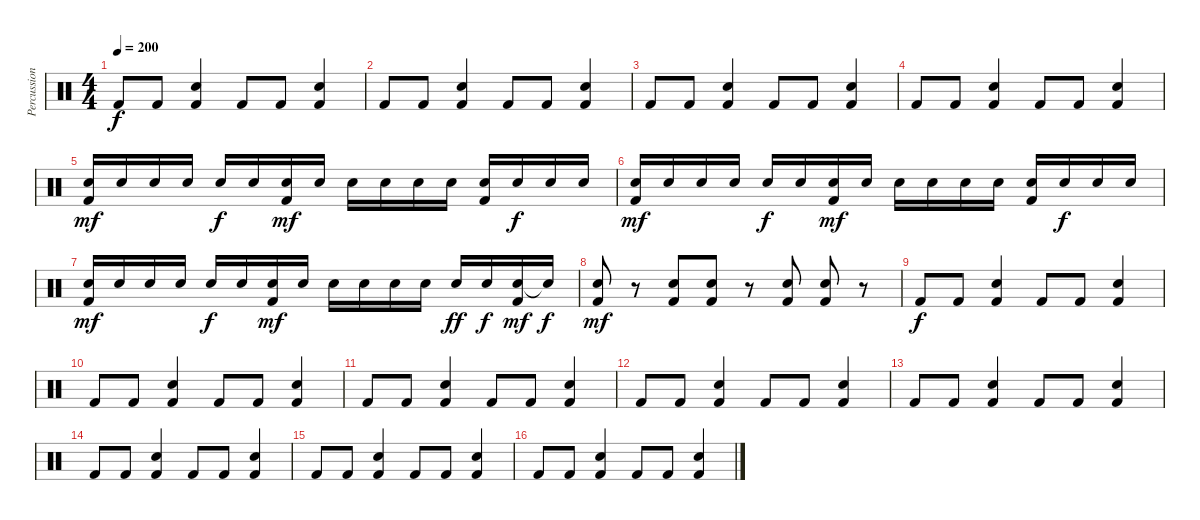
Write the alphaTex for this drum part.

\track ("Percussioni" "Percussion") {instrument percussion}
\staff {score}
\articulation defaults
\ts (4 4)
\tempo 200
\clef neutral
\ks c "Kick (hit) 2".8{dy f} "Kick (hit) 2".8
("Snare (hit) 2" "Kick (hit) 2").4 "Kick (hit) 2".8 "Kick (hit) 2".8 ("Snare (hit) 2" "Kick (hit) 2").4 |
"Kick (hit) 2".8 "Kick (hit) 2".8 ("Snare (hit) 2" "Kick (hit) 2").4 "Kick (hit) 2".8 "Kick (hit) 2".8 ("Snare (hit) 2" "Kick (hit) 2").4 |
"Kick (hit) 2".8 "Kick (hit) 2".8 ("Snare (hit) 2" "Kick (hit) 2").4 "Kick (hit) 2".8 "Kick (hit) 2".8 ("Snare (hit) 2" "Kick (hit) 2").4 |
"Kick (hit) 2".8 "Kick (hit) 2".8 ("Snare (hit) 2" "Kick (hit) 2").4 "Kick (hit) 2".8 "Kick (hit) 2".8 ("Snare (hit) 2" "Kick (hit) 2").4 |
("Electric Snare (hit)" "Kick (hit) 2").16{dy mf} "Electric Snare (hit)".16 "Electric Snare (hit)".16 "Electric Snare (hit)".16 "Electric Snare (hit)".16{dy f} "Electric Snare (hit)".16 ("Electric Snare (hit)" "Kick (hit) 2").16{dy mf} "Electric Snare (hit)".16 "Electric Snare (hit)".16 "Electric Snare (hit)".16 "Electric Snare (hit)".16 "Electric Snare (hit)".16 ("Electric Snare (hit)" "Kick (hit) 2").16 "Electric Snare (hit)".16{dy f} "Electric Snare (hit)".16 "Electric Snare (hit)".16 |
("Electric Snare (hit)" "Kick (hit) 2").16{dy mf} "Electric Snare (hit)".16 "Electric Snare (hit)".16 "Electric Snare (hit)".16 "Electric Snare (hit)".16{dy f} "Electric Snare (hit)".16 ("Electric Snare (hit)" "Kick (hit) 2").16{dy mf} "Electric Snare (hit)".16 "Electric Snare (hit)".16 "Electric Snare (hit)".16 "Electric Snare (hit)".16 "Electric Snare (hit)".16 ("Electric Snare (hit)" "Kick (hit) 2").16 "Electric Snare (hit)".16{dy f} "Electric Snare (hit)".16 "Electric Snare (hit)".16 |
("Electric Snare (hit)" "Kick (hit) 2").16{dy mf} "Electric Snare (hit)".16 "Electric Snare (hit)".16 "Electric Snare (hit)".16 "Electric Snare (hit)".16{dy f} "Electric Snare (hit)".16 ("Electric Snare (hit)" "Kick (hit) 2").16{dy mf} "Electric Snare (hit)".16 "Electric Snare (hit)".16 "Electric Snare (hit)".16 "Electric Snare (hit)".16 "Electric Snare (hit)".16 "Electric Snare (hit)".16{dy ff} "Electric Snare (hit)".16{dy f} ("Electric Snare (hit)" "Kick (hit) 2").16{dy mf} "Electric Snare (hit)"{t}.16{dy f} |
("Electric Snare (hit)" "Kick (hit) 2").8{dy mf} r.8 ("Electric Snare (hit)" "Kick (hit) 2").8 ("Electric Snare (hit)" "Kick (hit) 2").8 r.8 ("Electric Snare (hit)" "Kick (hit) 2").8 ("Electric Snare (hit)" "Kick (hit) 2").8 r.8 |
"Kick (hit) 2".8{dy f} "Kick (hit) 2".8 ("Snare (hit) 2" "Kick (hit) 2").4 "Kick (hit) 2".8 "Kick (hit) 2".8 ("Snare (hit) 2" "Kick (hit) 2").4 |
"Kick (hit) 2".8 "Kick (hit) 2".8 ("Snare (hit) 2" "Kick (hit) 2").4 "Kick (hit) 2".8 "Kick (hit) 2".8 ("Snare (hit) 2" "Kick (hit) 2").4 |
"Kick (hit) 2".8 "Kick (hit) 2".8 ("Snare (hit) 2" "Kick (hit) 2").4 "Kick (hit) 2".8 "Kick (hit) 2".8 ("Snare (hit) 2" "Kick (hit) 2").4 |
"Kick (hit) 2".8 "Kick (hit) 2".8 ("Snare (hit) 2" "Kick (hit) 2").4 "Kick (hit) 2".8 "Kick (hit) 2".8 ("Snare (hit) 2" "Kick (hit) 2").4 |
"Kick (hit) 2".8 "Kick (hit) 2".8 ("Snare (hit) 2" "Kick (hit) 2").4 "Kick (hit) 2".8 "Kick (hit) 2".8 ("Snare (hit) 2" "Kick (hit) 2").4 |
"Kick (hit) 2".8 "Kick (hit) 2".8 ("Snare (hit) 2" "Kick (hit) 2").4 "Kick (hit) 2".8 "Kick (hit) 2".8 ("Snare (hit) 2" "Kick (hit) 2").4 |
"Kick (hit) 2".8 "Kick (hit) 2".8 ("Snare (hit) 2" "Kick (hit) 2").4 "Kick (hit) 2".8 "Kick (hit) 2".8 ("Snare (hit) 2" "Kick (hit) 2").4 |
"Kick (hit) 2".8 "Kick (hit) 2".8 ("Snare (hit) 2" "Kick (hit) 2").4 "Kick (hit) 2".8 "Kick (hit) 2".8 ("Snare (hit) 2" "Kick (hit) 2").4
